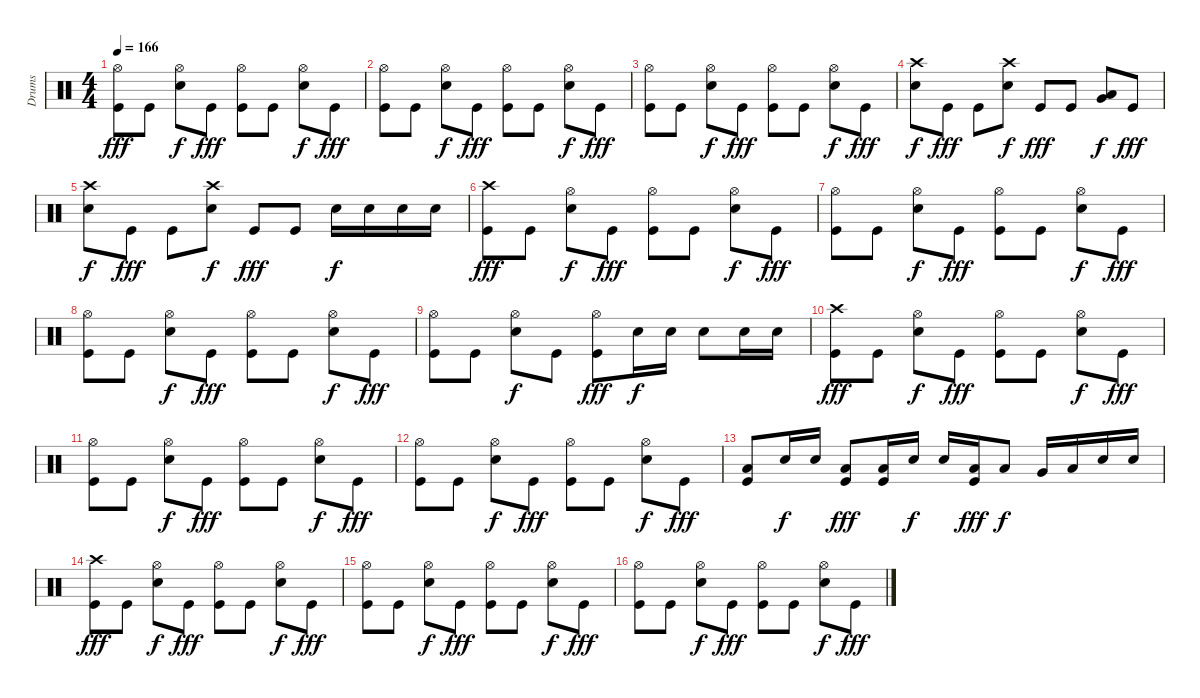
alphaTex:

\track ("Drums" "Drums") {instrument percussion}
\staff {score}
\articulation defaults
\ts (4 4)
\tempo 166
\clef neutral
\ks c
("Hi-Hat (open)" "Kick (hit)").8{dy fff} "Kick (hit)".8 ("Hi-Hat (open)" "Snare (hit) 2").8{dy f} "Kick (hit)".8{dy fff} ("Hi-Hat (open)" "Kick (hit)").8 "Kick (hit)".8 ("Hi-Hat (open)" "Snare (hit) 2").8{dy f} "Kick (hit)".8{dy fff} |
("Hi-Hat (open)" "Kick (hit)").8 "Kick (hit)".8 ("Hi-Hat (open)" "Snare (hit) 2").8{dy f} "Kick (hit)".8{dy fff} ("Hi-Hat (open)" "Kick (hit)").8 "Kick (hit)".8 ("Hi-Hat (open)" "Snare (hit) 2").8{dy f} "Kick (hit)".8{dy fff} |
("Hi-Hat (open)" "Kick (hit)").8 "Kick (hit)".8 ("Hi-Hat (open)" "Snare (hit) 2").8{dy f} "Kick (hit)".8{dy fff} ("Hi-Hat (open)" "Kick (hit)").8 "Kick (hit)".8 ("Hi-Hat (open)" "Snare (hit) 2").8{dy f} "Kick (hit)".8{dy fff} |
("Crash high (hit)" "Snare (hit) 2").8{dy f} "Kick (hit)".8{dy fff} "Kick (hit)".8 ("Crash high (hit)" "Snare (hit) 2").8{dy f} "Kick (hit)".8{dy fff} "Kick (hit)".8 ("Very Low Tom (hit)" "Low Floor Tom (hit)").8{dy f} "Kick (hit)".8{dy fff} |
("Crash high (hit)" "Snare (hit) 2").8{dy f} "Kick (hit)".8{dy fff} "Kick (hit)".8 ("Crash high (hit)" "Snare (hit) 2").8{dy f} "Kick (hit)".8{dy fff} "Kick (hit)".8 "Snare (hit) 2".16{dy f} "Snare (hit) 2".16 "Snare (hit) 2".16 "Snare (hit) 2".16 |
("Crash high (hit)" "Kick (hit)").8{dy fff} "Kick (hit)".8 ("Hi-Hat (open)" "Snare (hit) 2").8{dy f} "Kick (hit)".8{dy fff} ("Hi-Hat (open)" "Kick (hit)").8 "Kick (hit)".8 ("Hi-Hat (open)" "Snare (hit) 2").8{dy f} "Kick (hit)".8{dy fff} |
("Hi-Hat (open)" "Kick (hit)").8 "Kick (hit)".8 ("Hi-Hat (open)" "Snare (hit) 2").8{dy f} "Kick (hit)".8{dy fff} ("Hi-Hat (open)" "Kick (hit)").8 "Kick (hit)".8 ("Hi-Hat (open)" "Snare (hit) 2").8{dy f} "Kick (hit)".8{dy fff} |
("Hi-Hat (open)" "Kick (hit)").8 "Kick (hit)".8 ("Hi-Hat (open)" "Snare (hit) 2").8{dy f} "Kick (hit)".8{dy fff} ("Hi-Hat (open)" "Kick (hit)").8 "Kick (hit)".8 ("Hi-Hat (open)" "Snare (hit) 2").8{dy f} "Kick (hit)".8{dy fff} |
("Hi-Hat (open)" "Kick (hit)").8 "Kick (hit)".8 ("Hi-Hat (open)" "Snare (hit) 2").8{dy f} "Kick (hit)".8 ("Hi-Hat (open)" "Kick (hit)").8{dy fff} "Snare (hit) 2".16{dy f} "Snare (hit) 2".16 "Snare (hit) 2".8 "Snare (hit) 2".16 "Snare (hit) 2".16 |
("Crash high (hit)" "Kick (hit)").8{dy fff} "Kick (hit)".8 ("Hi-Hat (open)" "Snare (hit) 2").8{dy f} "Kick (hit)".8{dy fff} ("Hi-Hat (open)" "Kick (hit)").8 "Kick (hit)".8 ("Hi-Hat (open)" "Snare (hit) 2").8{dy f} "Kick (hit)".8{dy fff} |
("Hi-Hat (open)" "Kick (hit)").8 "Kick (hit)".8 ("Hi-Hat (open)" "Snare (hit) 2").8{dy f} "Kick (hit)".8{dy fff} ("Hi-Hat (open)" "Kick (hit)").8 "Kick (hit)".8 ("Hi-Hat (open)" "Snare (hit) 2").8{dy f} "Kick (hit)".8{dy fff} |
("Hi-Hat (open)" "Kick (hit)").8 "Kick (hit)".8 ("Hi-Hat (open)" "Snare (hit) 2").8{dy f} "Kick (hit)".8{dy fff} ("Hi-Hat (open)" "Kick (hit)").8 "Kick (hit)".8 ("Hi-Hat (open)" "Snare (hit) 2").8{dy f} "Kick (hit)".8{dy fff} |
("Low Tom (hit)" "Kick (hit)").8 "Snare (hit) 2".16{dy f} "Snare (hit) 2".16 ("Low Tom (hit)" "Kick (hit)").8{dy fff} ("Low Tom (hit)" "Kick (hit)").16 "Snare (hit) 2".16{dy f} "Snare (hit) 2".16 ("Low Tom (hit)" "Kick (hit)").16{dy fff} "Low Tom (hit)".8{dy f} "Very Low Tom (hit)".16 "Low Floor Tom (hit)".16 "Snare (hit) 2".16 "Snare (hit) 2".16 |
("Crash high (hit)" "Kick (hit)").8{dy fff} "Kick (hit)".8 ("Hi-Hat (open)" "Snare (hit) 2").8{dy f} "Kick (hit)".8{dy fff} ("Hi-Hat (open)" "Kick (hit)").8 "Kick (hit)".8 ("Hi-Hat (open)" "Snare (hit) 2").8{dy f} "Kick (hit)".8{dy fff} |
("Hi-Hat (open)" "Kick (hit)").8 "Kick (hit)".8 ("Hi-Hat (open)" "Snare (hit) 2").8{dy f} "Kick (hit)".8{dy fff} ("Hi-Hat (open)" "Kick (hit)").8 "Kick (hit)".8 ("Hi-Hat (open)" "Snare (hit) 2").8{dy f} "Kick (hit)".8{dy fff} |
("Hi-Hat (open)" "Kick (hit)").8 "Kick (hit)".8 ("Hi-Hat (open)" "Snare (hit) 2").8{dy f} "Kick (hit)".8{dy fff} ("Hi-Hat (open)" "Kick (hit)").8 "Kick (hit)".8 ("Hi-Hat (open)" "Snare (hit) 2").8{dy f} "Kick (hit)".8{dy fff}
